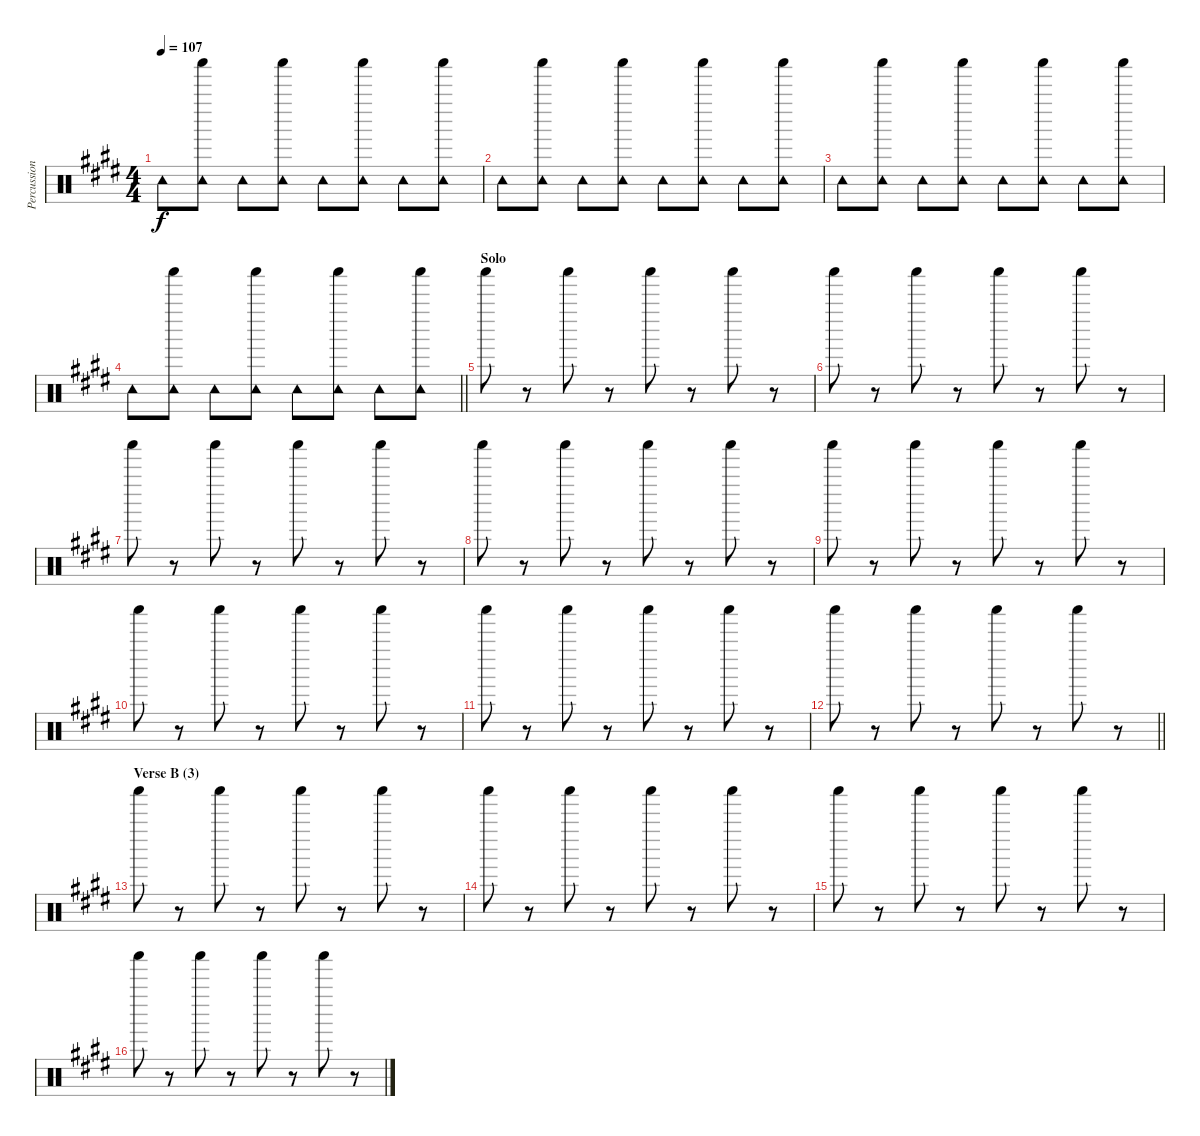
\track ("Percussion" "Percussion") {instrument percussion}
\staff {score}
\articulation defaults
\ts (4 4)
\tempo 107
\clef neutral
\ks e "Tambourine (hit)".8{dy f}
("Shaker (hit)" "Tambourine (hit)").8 "Tambourine (hit)".8 ("Shaker (hit)" "Tambourine (hit)").8 "Tambourine (hit)".8 ("Shaker (hit)" "Tambourine (hit)").8 "Tambourine (hit)".8 ("Shaker (hit)" "Tambourine (hit)").8 |
"Tambourine (hit)".8 ("Shaker (hit)" "Tambourine (hit)").8 "Tambourine (hit)".8 ("Shaker (hit)" "Tambourine (hit)").8 "Tambourine (hit)".8 ("Shaker (hit)" "Tambourine (hit)").8 "Tambourine (hit)".8 ("Shaker (hit)" "Tambourine (hit)").8 |
"Tambourine (hit)".8 ("Shaker (hit)" "Tambourine (hit)").8 "Tambourine (hit)".8 ("Shaker (hit)" "Tambourine (hit)").8 "Tambourine (hit)".8 ("Shaker (hit)" "Tambourine (hit)").8 "Tambourine (hit)".8 ("Shaker (hit)" "Tambourine (hit)").8 |
\barLineRight lightlight "Tambourine (hit)".8
("Shaker (hit)" "Tambourine (hit)").8 "Tambourine (hit)".8 ("Shaker (hit)" "Tambourine (hit)").8 "Tambourine (hit)".8 ("Shaker (hit)" "Tambourine (hit)").8 "Tambourine (hit)".8 ("Shaker (hit)" "Tambourine (hit)").8 |
\section ("" "Solo")
"Shaker (hit)".8 r.8 "Shaker (hit)".8 r.8 "Shaker (hit)".8 r.8 "Shaker (hit)".8 r.8 |
"Shaker (hit)".8 r.8 "Shaker (hit)".8 r.8 "Shaker (hit)".8 r.8 "Shaker (hit)".8 r.8 |
"Shaker (hit)".8 r.8 "Shaker (hit)".8 r.8 "Shaker (hit)".8 r.8 "Shaker (hit)".8 r.8 |
"Shaker (hit)".8 r.8 "Shaker (hit)".8 r.8 "Shaker (hit)".8 r.8 "Shaker (hit)".8 r.8 |
"Shaker (hit)".8 r.8 "Shaker (hit)".8 r.8 "Shaker (hit)".8 r.8 "Shaker (hit)".8 r.8 |
"Shaker (hit)".8 r.8 "Shaker (hit)".8 r.8 "Shaker (hit)".8 r.8 "Shaker (hit)".8 r.8 |
"Shaker (hit)".8 r.8 "Shaker (hit)".8 r.8 "Shaker (hit)".8 r.8 "Shaker (hit)".8 r.8 |
\barLineRight lightlight "Shaker (hit)".8
r.8 "Shaker (hit)".8 r.8 "Shaker (hit)".8 r.8 "Shaker (hit)".8 r.8 |
\section ("" "Verse B (3)")
"Shaker (hit)".8 r.8 "Shaker (hit)".8 r.8 "Shaker (hit)".8 r.8 "Shaker (hit)".8 r.8 |
"Shaker (hit)".8 r.8 "Shaker (hit)".8 r.8 "Shaker (hit)".8 r.8 "Shaker (hit)".8 r.8 |
"Shaker (hit)".8 r.8 "Shaker (hit)".8 r.8 "Shaker (hit)".8 r.8 "Shaker (hit)".8 r.8 |
"Shaker (hit)".8 r.8 "Shaker (hit)".8 r.8 "Shaker (hit)".8 r.8 "Shaker (hit)".8 r.8
